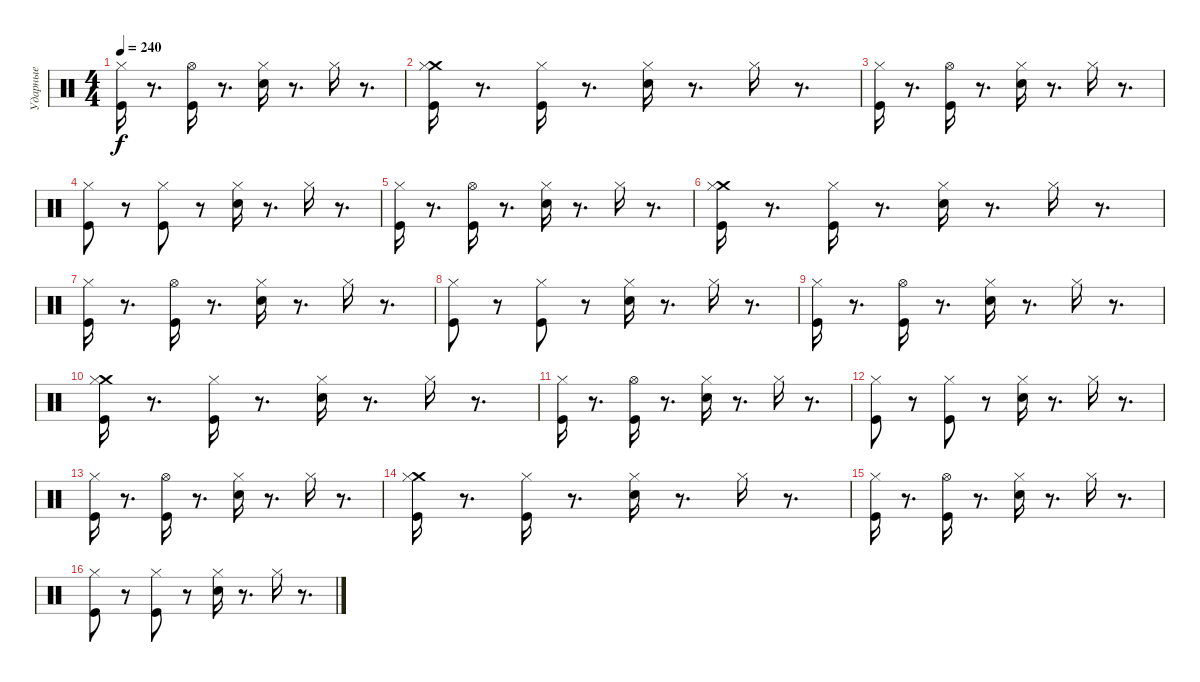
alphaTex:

\track ("Ударные" "Ударные") {instrument percussion}
\staff {score}
\articulation defaults
\ts (4 4)
\tempo 240
\clef neutral
\ks c
("Kick (hit)" "Hi-Hat (closed)").16{dy f} r.8{d} ("Kick (hit)" "Hi-Hat (open)").16 r.8{d} ("Snare (hit) 2" "Hi-Hat (closed)").16 r.8{d} "Hi-Hat (closed)".16 r.8{d} |
("Kick (hit)" "Crash medium (hit)" "Hi-Hat (closed)").16 r.8{d} ("Kick (hit)" "Hi-Hat (closed)").16 r.8{d} ("Snare (hit) 2" "Hi-Hat (closed)").16 r.8{d} "Hi-Hat (closed)".16 r.8{d} |
("Kick (hit)" "Hi-Hat (closed)").16 r.8{d} ("Kick (hit)" "Hi-Hat (open)").16 r.8{d} ("Snare (hit) 2" "Hi-Hat (closed)").16 r.8{d} "Hi-Hat (closed)".16 r.8{d} |
("Hi-Hat (closed)" "Kick (hit)").8 r.8 ("Kick (hit)" "Hi-Hat (closed)").8 r.8 ("Snare (hit) 2" "Hi-Hat (closed)").16 r.8{d} "Hi-Hat (closed)".16 r.8{d} |
("Kick (hit)" "Hi-Hat (closed)").16 r.8{d} ("Kick (hit)" "Hi-Hat (open)").16 r.8{d} ("Snare (hit) 2" "Hi-Hat (closed)").16 r.8{d} "Hi-Hat (closed)".16 r.8{d} |
("Kick (hit)" "Crash medium (hit)" "Hi-Hat (closed)").16 r.8{d} ("Kick (hit)" "Hi-Hat (closed)").16 r.8{d} ("Snare (hit) 2" "Hi-Hat (closed)").16 r.8{d} "Hi-Hat (closed)".16 r.8{d} |
("Kick (hit)" "Hi-Hat (closed)").16 r.8{d} ("Kick (hit)" "Hi-Hat (open)").16 r.8{d} ("Snare (hit) 2" "Hi-Hat (closed)").16 r.8{d} "Hi-Hat (closed)".16 r.8{d} |
("Hi-Hat (closed)" "Kick (hit)").8 r.8 ("Kick (hit)" "Hi-Hat (closed)").8 r.8 ("Snare (hit) 2" "Hi-Hat (closed)").16 r.8{d} "Hi-Hat (closed)".16 r.8{d} |
("Kick (hit)" "Hi-Hat (closed)").16 r.8{d} ("Kick (hit)" "Hi-Hat (open)").16 r.8{d} ("Snare (hit) 2" "Hi-Hat (closed)").16 r.8{d} "Hi-Hat (closed)".16 r.8{d} |
("Kick (hit)" "Crash medium (hit)" "Hi-Hat (closed)").16 r.8{d} ("Kick (hit)" "Hi-Hat (closed)").16 r.8{d} ("Snare (hit) 2" "Hi-Hat (closed)").16 r.8{d} "Hi-Hat (closed)".16 r.8{d} |
("Kick (hit)" "Hi-Hat (closed)").16 r.8{d} ("Kick (hit)" "Hi-Hat (open)").16 r.8{d} ("Snare (hit) 2" "Hi-Hat (closed)").16 r.8{d} "Hi-Hat (closed)".16 r.8{d} |
("Hi-Hat (closed)" "Kick (hit)").8 r.8 ("Kick (hit)" "Hi-Hat (closed)").8 r.8 ("Snare (hit) 2" "Hi-Hat (closed)").16 r.8{d} "Hi-Hat (closed)".16 r.8{d} |
("Kick (hit)" "Hi-Hat (closed)").16 r.8{d} ("Kick (hit)" "Hi-Hat (open)").16 r.8{d} ("Snare (hit) 2" "Hi-Hat (closed)").16 r.8{d} "Hi-Hat (closed)".16 r.8{d} |
("Kick (hit)" "Crash medium (hit)" "Hi-Hat (closed)").16 r.8{d} ("Kick (hit)" "Hi-Hat (closed)").16 r.8{d} ("Snare (hit) 2" "Hi-Hat (closed)").16 r.8{d} "Hi-Hat (closed)".16 r.8{d} |
("Kick (hit)" "Hi-Hat (closed)").16 r.8{d} ("Kick (hit)" "Hi-Hat (open)").16 r.8{d} ("Snare (hit) 2" "Hi-Hat (closed)").16 r.8{d} "Hi-Hat (closed)".16 r.8{d} |
("Hi-Hat (closed)" "Kick (hit)").8 r.8 ("Kick (hit)" "Hi-Hat (closed)").8 r.8 ("Snare (hit) 2" "Hi-Hat (closed)").16 r.8{d} "Hi-Hat (closed)".16 r.8{d}
